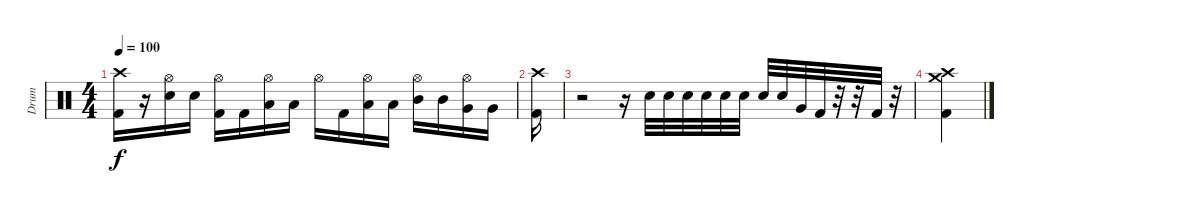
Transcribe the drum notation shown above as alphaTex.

\track ("Drum" "Drum") {instrument percussion}
\staff {score}
\articulation defaults
\ts (4 4)
\tempo 100
\clef neutral
\ks c
("Crash high (hit)" "Kick (hit) 2").16{dy f} r.16 ("Hi-Hat (open)" "Electric Snare (hit)").16 "Electric Snare (hit)".16 ("Hi-Hat (open)" "Kick (hit) 2").16 "Kick (hit) 2".16 ("Hi-Hat (open)" "Low Tom (hit)").16 "Low Tom (hit)".16 "Hi-Hat (open)".16 "Kick (hit) 2".16 ("Hi-Hat (open)" "Low Tom (hit)").16 "Low Tom (hit)".16 ("Hi-Hat (open)" "Mid Tom (hit)").16 "Mid Tom (hit)".16 ("Hi-Hat (open)" "Very Low Tom (hit)").16 "Very Low Tom (hit)".16 |
("Crash high (hit)" "Kick (hit) 2").16 |
r.2 r.16 "Electric Snare (hit)".32 "Electric Snare (hit)".32 "Electric Snare (hit)".32 "Electric Snare (hit)".32 "Electric Snare (hit)".32 "Electric Snare (hit)".32 "Electric Snare (hit)".32 "Electric Snare (hit)".32 "Very Low Tom (hit)".32 "Kick (hit) 2".32 r.32 r.32 "Kick (hit) 2".32 r.32 |
("Crash high (hit)" "Crash medium (hit)" "Kick (hit) 2").4
